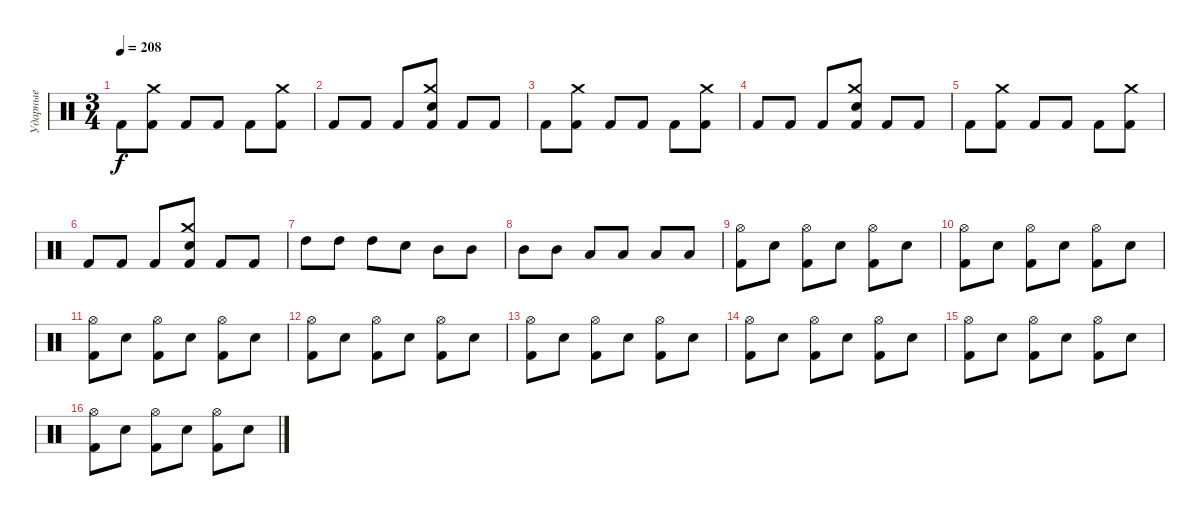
\track ("Ударные" "Ударные") {instrument percussion}
\staff {score}
\articulation defaults
\ts (3 4)
\tempo 208
\clef neutral
\ks c "Kick (hit) 2".8{dy f}
("Crash medium (hit)" "Kick (hit) 2").8 "Kick (hit) 2".8 "Kick (hit) 2".8 "Kick (hit) 2".8 ("Crash medium (hit)" "Kick (hit) 2").8 |
"Kick (hit) 2".8 "Kick (hit) 2".8 "Kick (hit) 2".8 ("Crash medium (hit)" "Electric Snare (hit)" "Kick (hit) 2").8 "Kick (hit) 2".8 "Kick (hit) 2".8 |
"Kick (hit) 2".8 ("Crash medium (hit)" "Kick (hit) 2").8 "Kick (hit) 2".8 "Kick (hit) 2".8 "Kick (hit) 2".8 ("Crash medium (hit)" "Kick (hit) 2").8 |
"Kick (hit) 2".8 "Kick (hit) 2".8 "Kick (hit) 2".8 ("Crash medium (hit)" "Electric Snare (hit)" "Kick (hit) 2").8 "Kick (hit) 2".8 "Kick (hit) 2".8 |
"Kick (hit) 2".8 ("Crash medium (hit)" "Kick (hit) 2").8 "Kick (hit) 2".8 "Kick (hit) 2".8 "Kick (hit) 2".8 ("Crash medium (hit)" "Kick (hit) 2").8 |
"Kick (hit) 2".8 "Kick (hit) 2".8 "Kick (hit) 2".8 ("Crash medium (hit)" "Electric Snare (hit)" "Kick (hit) 2").8 "Kick (hit) 2".8 "Kick (hit) 2".8 |
"High Tom (hit)".8 "High Tom (hit)".8 "High Tom (hit)".8 "Electric Snare (hit)".8 "Mid Tom (hit)".8 "Mid Tom (hit)".8 |
"Mid Tom (hit)".8 "Mid Tom (hit)".8 "Low Tom (hit)".8 "Low Tom (hit)".8 "Low Tom (hit)".8 "Low Tom (hit)".8 |
("Hi-Hat (open)" "Kick (hit) 2").8 "Electric Snare (hit)".8 ("Hi-Hat (open)" "Kick (hit) 2").8 "Electric Snare (hit)".8 ("Hi-Hat (open)" "Kick (hit) 2").8 "Electric Snare (hit)".8 |
("Hi-Hat (open)" "Kick (hit) 2").8 "Electric Snare (hit)".8 ("Hi-Hat (open)" "Kick (hit) 2").8 "Electric Snare (hit)".8 ("Hi-Hat (open)" "Kick (hit) 2").8 "Electric Snare (hit)".8 |
("Hi-Hat (open)" "Kick (hit) 2").8 "Electric Snare (hit)".8 ("Hi-Hat (open)" "Kick (hit) 2").8 "Electric Snare (hit)".8 ("Hi-Hat (open)" "Kick (hit) 2").8 "Electric Snare (hit)".8 |
("Hi-Hat (open)" "Kick (hit) 2").8 "Electric Snare (hit)".8 ("Hi-Hat (open)" "Kick (hit) 2").8 "Electric Snare (hit)".8 ("Hi-Hat (open)" "Kick (hit) 2").8 "Electric Snare (hit)".8 |
("Hi-Hat (open)" "Kick (hit) 2").8 "Electric Snare (hit)".8 ("Hi-Hat (open)" "Kick (hit) 2").8 "Electric Snare (hit)".8 ("Hi-Hat (open)" "Kick (hit) 2").8 "Electric Snare (hit)".8 |
("Hi-Hat (open)" "Kick (hit) 2").8 "Electric Snare (hit)".8 ("Hi-Hat (open)" "Kick (hit) 2").8 "Electric Snare (hit)".8 ("Hi-Hat (open)" "Kick (hit) 2").8 "Electric Snare (hit)".8 |
("Hi-Hat (open)" "Kick (hit) 2").8 "Electric Snare (hit)".8 ("Hi-Hat (open)" "Kick (hit) 2").8 "Electric Snare (hit)".8 ("Hi-Hat (open)" "Kick (hit) 2").8 "Electric Snare (hit)".8 |
("Hi-Hat (open)" "Kick (hit) 2").8 "Electric Snare (hit)".8 ("Hi-Hat (open)" "Kick (hit) 2").8 "Electric Snare (hit)".8 ("Hi-Hat (open)" "Kick (hit) 2").8 "Electric Snare (hit)".8
